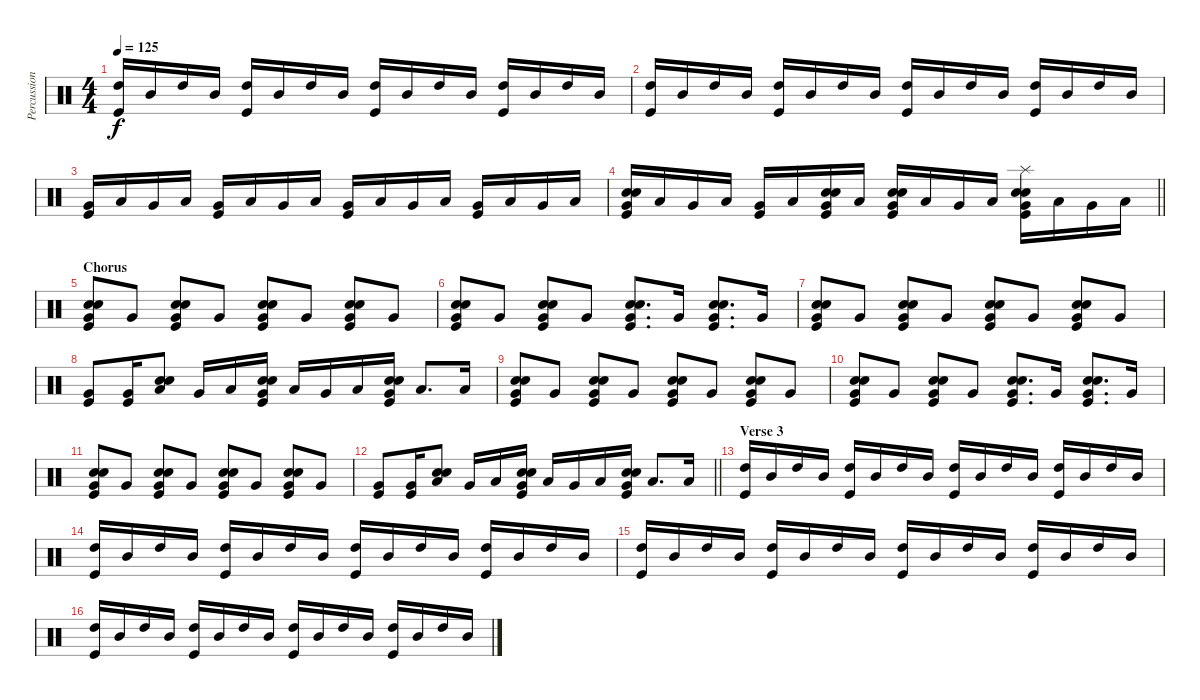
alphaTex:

\track ("Percussions" "Percussion") {instrument percussion}
\staff {score}
\articulation defaults
\ts (4 4)
\tempo 125
\clef neutral
\ks c
("High Tom (hit)" "Kick (hit)").16{dy f} "Mid Tom (hit)".16 "High Tom (hit)".16 "Mid Tom (hit)".16 ("High Tom (hit)" "Kick (hit)").16 "Mid Tom (hit)".16 "High Tom (hit)".16 "Mid Tom (hit)".16 ("High Tom (hit)" "Kick (hit)").16 "Mid Tom (hit)".16 "High Tom (hit)".16 "Mid Tom (hit)".16 ("High Tom (hit)" "Kick (hit)").16 "Mid Tom (hit)".16 "High Tom (hit)".16 "Mid Tom (hit)".16 |
("High Tom (hit)" "Kick (hit)").16 "Mid Tom (hit)".16 "High Tom (hit)".16 "Mid Tom (hit)".16 ("High Tom (hit)" "Kick (hit)").16 "Mid Tom (hit)".16 "High Tom (hit)".16 "Mid Tom (hit)".16 ("High Tom (hit)" "Kick (hit)").16 "Mid Tom (hit)".16 "High Tom (hit)".16 "Mid Tom (hit)".16 ("High Tom (hit)" "Kick (hit)").16 "Mid Tom (hit)".16 "High Tom (hit)".16 "Mid Tom (hit)".16 |
("Very Low Tom (hit)" "Kick (hit)").16 "Low Tom (hit)".16 "Very Low Tom (hit)".16 "Low Tom (hit)".16 ("Very Low Tom (hit)" "Kick (hit)").16 "Low Tom (hit)".16 "Very Low Tom (hit)".16 "Low Tom (hit)".16 ("Very Low Tom (hit)" "Kick (hit)").16 "Low Tom (hit)".16 "Very Low Tom (hit)".16 "Low Tom (hit)".16 ("Very Low Tom (hit)" "Kick (hit)").16 "Low Tom (hit)".16 "Very Low Tom (hit)".16 "Low Tom (hit)".16 |
\barLineRight lightlight
("Snare (hit) 2" "Electric Snare (hit)" "Very Low Tom (hit)" "Kick (hit)").16 "Low Tom (hit)".16 "Very Low Tom (hit)".16 "Low Tom (hit)".16 ("Very Low Tom (hit)" "Kick (hit)").16 "Low Tom (hit)".16 ("Snare (hit) 2" "Electric Snare (hit)" "Very Low Tom (hit)" "Kick (hit)").16 "Low Tom (hit)".16 ("Snare (hit) 2" "Electric Snare (hit)" "Very Low Tom (hit)" "Kick (hit)").16 "Low Tom (hit)".16 "Very Low Tom (hit)".16 "Low Tom (hit)".16 ("Snare (hit) 2" "Electric Snare (hit)" "Splash (hit)" "Very Low Tom (hit)" "Kick (hit)").16 "Low Tom (hit)".16 "Very Low Tom (hit)".16 "Low Tom (hit)".16 |
\section ("" "Chorus")
("Snare (hit) 2" "Electric Snare (hit)" "Very Low Tom (hit)" "Kick (hit)").8 "Very Low Tom (hit)".8 ("Snare (hit) 2" "Electric Snare (hit)" "Very Low Tom (hit)" "Kick (hit)").8 "Very Low Tom (hit)".8 ("Snare (hit) 2" "Electric Snare (hit)" "Very Low Tom (hit)" "Kick (hit)").8 "Very Low Tom (hit)".8 ("Snare (hit) 2" "Electric Snare (hit)" "Very Low Tom (hit)" "Kick (hit)").8 "Very Low Tom (hit)".8 |
("Snare (hit) 2" "Electric Snare (hit)" "Very Low Tom (hit)" "Kick (hit)").8 "Very Low Tom (hit)".8 ("Snare (hit) 2" "Electric Snare (hit)" "Very Low Tom (hit)" "Kick (hit)").8 "Very Low Tom (hit)".8 ("Snare (hit) 2" "Electric Snare (hit)" "Very Low Tom (hit)" "Kick (hit)").8{d} "Very Low Tom (hit)".16 ("Snare (hit) 2" "Electric Snare (hit)" "Very Low Tom (hit)" "Kick (hit)").8{d} "Very Low Tom (hit)".16 |
("Snare (hit) 2" "Electric Snare (hit)" "Very Low Tom (hit)" "Kick (hit)").8 "Very Low Tom (hit)".8 ("Snare (hit) 2" "Electric Snare (hit)" "Very Low Tom (hit)" "Kick (hit)").8 "Very Low Tom (hit)".8 ("Snare (hit) 2" "Electric Snare (hit)" "Very Low Tom (hit)" "Kick (hit)").8 "Very Low Tom (hit)".8 ("Snare (hit) 2" "Electric Snare (hit)" "Very Low Tom (hit)" "Kick (hit)").8 "Very Low Tom (hit)".8 |
("Very Low Tom (hit)" "Kick (hit)").8 ("Very Low Tom (hit)" "Kick (hit)").16 ("Snare (hit) 2" "Electric Snare (hit)" "Low Tom (hit)").8 "Very Low Tom (hit)".16 "Low Tom (hit)".16 ("Snare (hit) 2" "Electric Snare (hit)" "Very Low Tom (hit)" "Kick (hit)").16 "Low Tom (hit)".16 "Very Low Tom (hit)".16 "Low Tom (hit)".16 ("Snare (hit) 2" "Electric Snare (hit)" "Very Low Tom (hit)" "Kick (hit)").16 "Low Tom (hit)".8{d} "Low Tom (hit)".16 |
("Snare (hit) 2" "Electric Snare (hit)" "Very Low Tom (hit)" "Kick (hit)").8 "Very Low Tom (hit)".8 ("Snare (hit) 2" "Electric Snare (hit)" "Very Low Tom (hit)" "Kick (hit)").8 "Very Low Tom (hit)".8 ("Snare (hit) 2" "Electric Snare (hit)" "Very Low Tom (hit)" "Kick (hit)").8 "Very Low Tom (hit)".8 ("Snare (hit) 2" "Electric Snare (hit)" "Very Low Tom (hit)" "Kick (hit)").8 "Very Low Tom (hit)".8 |
("Snare (hit) 2" "Electric Snare (hit)" "Very Low Tom (hit)" "Kick (hit)").8 "Very Low Tom (hit)".8 ("Snare (hit) 2" "Electric Snare (hit)" "Very Low Tom (hit)" "Kick (hit)").8 "Very Low Tom (hit)".8 ("Snare (hit) 2" "Electric Snare (hit)" "Very Low Tom (hit)" "Kick (hit)").8{d} "Very Low Tom (hit)".16 ("Snare (hit) 2" "Electric Snare (hit)" "Very Low Tom (hit)" "Kick (hit)").8{d} "Very Low Tom (hit)".16 |
("Snare (hit) 2" "Electric Snare (hit)" "Very Low Tom (hit)" "Kick (hit)").8 "Very Low Tom (hit)".8 ("Snare (hit) 2" "Electric Snare (hit)" "Very Low Tom (hit)" "Kick (hit)").8 "Very Low Tom (hit)".8 ("Snare (hit) 2" "Electric Snare (hit)" "Very Low Tom (hit)" "Kick (hit)").8 "Very Low Tom (hit)".8 ("Snare (hit) 2" "Electric Snare (hit)" "Very Low Tom (hit)" "Kick (hit)").8 "Very Low Tom (hit)".8 |
\barLineRight lightlight
("Very Low Tom (hit)" "Kick (hit)").8 ("Very Low Tom (hit)" "Kick (hit)").16 ("Snare (hit) 2" "Electric Snare (hit)" "Low Tom (hit)").8 "Very Low Tom (hit)".16 "Low Tom (hit)".16 ("Snare (hit) 2" "Electric Snare (hit)" "Very Low Tom (hit)" "Kick (hit)").16 "Low Tom (hit)".16 "Very Low Tom (hit)".16 "Low Tom (hit)".16 ("Snare (hit) 2" "Electric Snare (hit)" "Very Low Tom (hit)" "Kick (hit)").16 "Low Tom (hit)".8{d} "Low Tom (hit)".16 |
\section ("" "Verse 3")
("High Tom (hit)" "Kick (hit)").16 "Mid Tom (hit)".16 "High Tom (hit)".16 "Mid Tom (hit)".16 ("High Tom (hit)" "Kick (hit)").16 "Mid Tom (hit)".16 "High Tom (hit)".16 "Mid Tom (hit)".16 ("High Tom (hit)" "Kick (hit)").16 "Mid Tom (hit)".16 "High Tom (hit)".16 "Mid Tom (hit)".16 ("High Tom (hit)" "Kick (hit)").16 "Mid Tom (hit)".16 "High Tom (hit)".16 "Mid Tom (hit)".16 |
("High Tom (hit)" "Kick (hit)").16 "Mid Tom (hit)".16 "High Tom (hit)".16 "Mid Tom (hit)".16 ("High Tom (hit)" "Kick (hit)").16 "Mid Tom (hit)".16 "High Tom (hit)".16 "Mid Tom (hit)".16 ("High Tom (hit)" "Kick (hit)").16 "Mid Tom (hit)".16 "High Tom (hit)".16 "Mid Tom (hit)".16 ("High Tom (hit)" "Kick (hit)").16 "Mid Tom (hit)".16 "High Tom (hit)".16 "Mid Tom (hit)".16 |
("High Tom (hit)" "Kick (hit)").16 "Mid Tom (hit)".16 "High Tom (hit)".16 "Mid Tom (hit)".16 ("High Tom (hit)" "Kick (hit)").16 "Mid Tom (hit)".16 "High Tom (hit)".16 "Mid Tom (hit)".16 ("High Tom (hit)" "Kick (hit)").16 "Mid Tom (hit)".16 "High Tom (hit)".16 "Mid Tom (hit)".16 ("High Tom (hit)" "Kick (hit)").16 "Mid Tom (hit)".16 "High Tom (hit)".16 "Mid Tom (hit)".16 |
("High Tom (hit)" "Kick (hit)").16 "Mid Tom (hit)".16 "High Tom (hit)".16 "Mid Tom (hit)".16 ("High Tom (hit)" "Kick (hit)").16 "Mid Tom (hit)".16 "High Tom (hit)".16 "Mid Tom (hit)".16 ("High Tom (hit)" "Kick (hit)").16 "Mid Tom (hit)".16 "High Tom (hit)".16 "Mid Tom (hit)".16 ("High Tom (hit)" "Kick (hit)").16 "Mid Tom (hit)".16 "High Tom (hit)".16 "Mid Tom (hit)".16
